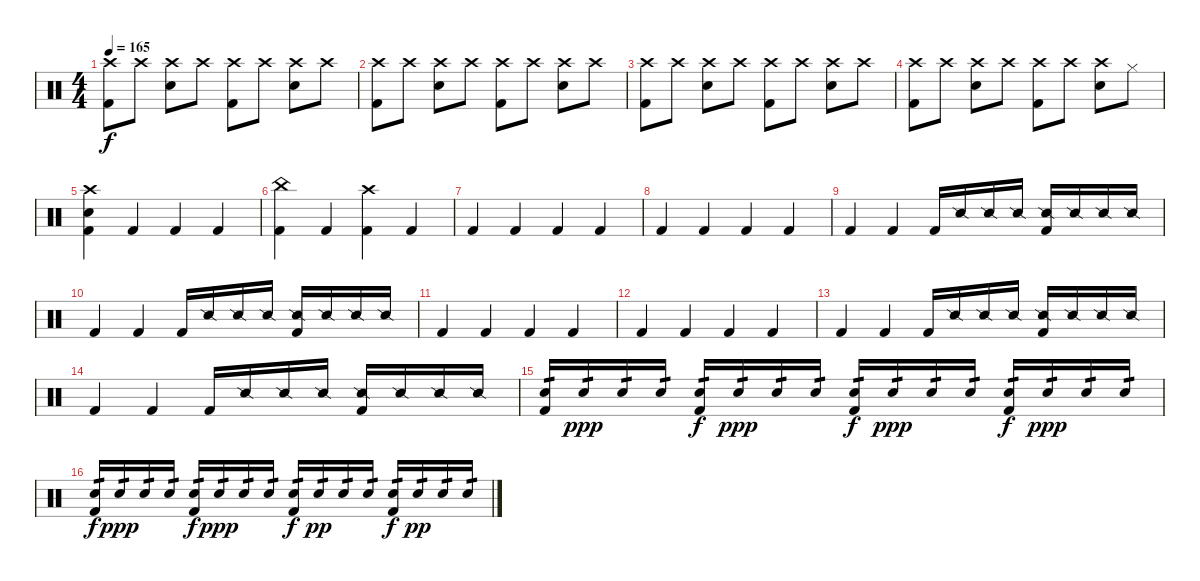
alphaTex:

\track "" {instrument percussion}
\staff {score}
\articulation defaults
\ts (4 4)
\tempo 165
\clef neutral
\ks c
("Crash high (hit)" "Kick (hit) 2").8{dy f} "Crash high (hit)".8 ("Crash high (hit)" "Electric Snare (hit)").8 "Crash high (hit)".8 ("Crash high (hit)" "Kick (hit) 2").8 "Crash high (hit)".8 ("Crash high (hit)" "Electric Snare (hit)").8 "Crash high (hit)".8 |
("Crash high (hit)" "Kick (hit) 2").8 "Crash high (hit)".8 ("Crash high (hit)" "Electric Snare (hit)").8 "Crash high (hit)".8 ("Crash high (hit)" "Kick (hit) 2").8 "Crash high (hit)".8 ("Crash high (hit)" "Electric Snare (hit)").8 "Crash high (hit)".8 |
("Crash high (hit)" "Kick (hit) 2").8 "Crash high (hit)".8 ("Crash high (hit)" "Electric Snare (hit)").8 "Crash high (hit)".8 ("Crash high (hit)" "Kick (hit) 2").8 "Crash high (hit)".8 ("Crash high (hit)" "Electric Snare (hit)").8 "Crash high (hit)".8 |
("Crash high (hit)" "Kick (hit) 2").8 "Crash high (hit)".8 ("Crash high (hit)" "Electric Snare (hit)").8 "Crash high (hit)".8 ("Crash high (hit)" "Kick (hit) 2").8 "Crash high (hit)".8 ("Crash high (hit)" "Electric Snare (hit)").8 "Hi-Hat (closed)".8 |
("Crash high (hit)" "Electric Snare (hit)" "Kick (hit) 2").4 "Kick (hit) 2".4 "Kick (hit) 2".4 "Kick (hit) 2".4 |
("China (hit)" "Kick (hit) 2").4 "Kick (hit) 2".4 ("Crash high (hit)" "Kick (hit) 2").4 "Kick (hit) 2".4 |
"Kick (hit) 2".4 "Kick (hit) 2".4 "Kick (hit) 2".4 "Kick (hit) 2".4 |
"Kick (hit) 2".4 "Kick (hit) 2".4 "Kick (hit) 2".4 "Kick (hit) 2".4 |
"Kick (hit) 2".4 "Kick (hit) 2".4 "Kick (hit) 2".16 "Snare (side stick) 2".16 "Snare (side stick) 2".16 "Snare (side stick) 2".16 ("Snare (side stick) 2" "Kick (hit) 2").16 "Snare (side stick) 2".16 "Snare (side stick) 2".16 "Snare (side stick) 2".16 |
"Kick (hit) 2".4 "Kick (hit) 2".4 "Kick (hit) 2".16 "Snare (side stick) 2".16 "Snare (side stick) 2".16 "Snare (side stick) 2".16 ("Snare (side stick) 2" "Kick (hit) 2").16 "Snare (side stick) 2".16 "Snare (side stick) 2".16 "Snare (side stick) 2".16 |
"Kick (hit) 2".4 "Kick (hit) 2".4 "Kick (hit) 2".4 "Kick (hit) 2".4 |
"Kick (hit) 2".4 "Kick (hit) 2".4 "Kick (hit) 2".4 "Kick (hit) 2".4 |
"Kick (hit) 2".4 "Kick (hit) 2".4 "Kick (hit) 2".16 "Snare (side stick) 2".16 "Snare (side stick) 2".16 "Snare (side stick) 2".16 ("Snare (side stick) 2" "Kick (hit) 2").16 "Snare (side stick) 2".16 "Snare (side stick) 2".16 "Snare (side stick) 2".16 |
"Kick (hit) 2".4 "Kick (hit) 2".4 "Kick (hit) 2".16 "Snare (side stick) 2".16 "Snare (side stick) 2".16 "Snare (side stick) 2".16 ("Snare (side stick) 2" "Kick (hit) 2").16 "Snare (side stick) 2".16 "Snare (side stick) 2".16 "Snare (side stick) 2".16 |
("Electric Snare (hit)" "Kick (hit) 2").16{tp 1} "Electric Snare (hit)".16{tp 1 dy ppp} "Electric Snare (hit)".16{tp 1} "Electric Snare (hit)".16{tp 1} ("Electric Snare (hit)" "Kick (hit) 2").16{tp 1 dy f} "Electric Snare (hit)".16{tp 1 dy ppp} "Electric Snare (hit)".16{tp 1} "Electric Snare (hit)".16{tp 1} ("Electric Snare (hit)" "Kick (hit) 2").16{tp 1 dy f} "Electric Snare (hit)".16{tp 1 dy ppp} "Electric Snare (hit)".16{tp 1} "Electric Snare (hit)".16{tp 1} ("Electric Snare (hit)" "Kick (hit) 2").16{tp 1 dy f} "Electric Snare (hit)".16{tp 1 dy ppp} "Electric Snare (hit)".16{tp 1} "Electric Snare (hit)".16{tp 1} |
("Electric Snare (hit)" "Kick (hit) 2").16{tp 1 dy f} "Electric Snare (hit)".16{tp 1 dy ppp} "Electric Snare (hit)".16{tp 1} "Electric Snare (hit)".16{tp 1} ("Electric Snare (hit)" "Kick (hit) 2").16{tp 1 dy f} "Electric Snare (hit)".16{tp 1 dy ppp} "Electric Snare (hit)".16{tp 1} "Electric Snare (hit)".16{tp 1} ("Electric Snare (hit)" "Kick (hit) 2").16{tp 1 dy f} "Electric Snare (hit)".16{tp 1 dy pp} "Electric Snare (hit)".16{tp 1} "Electric Snare (hit)".16{tp 1} ("Electric Snare (hit)" "Kick (hit) 2").16{tp 1 dy f} "Electric Snare (hit)".16{tp 1 dy pp} "Electric Snare (hit)".16{tp 1} "Electric Snare (hit)".16{tp 1}
